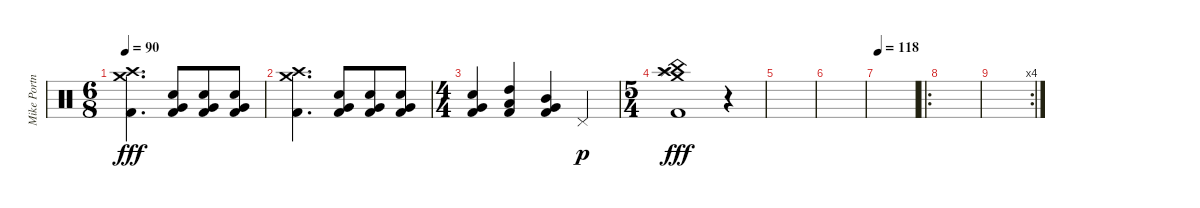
\track ("Mike Portnoy" "Mike Portn") {instrument percussion}
\staff {score}
\articulation defaults
\ts (6 8)
\tempo 90
\clef neutral
\ks c
("Kick (hit) 2" "Crash high (hit)" "Crash medium (hit)").4{d dy fff} ("Kick (hit) 2" "Electric Snare (hit)" "Very Low Tom (hit)").8 ("Kick (hit) 2" "Electric Snare (hit)" "Very Low Tom (hit)").8 ("Kick (hit) 2" "Electric Snare (hit)" "Very Low Tom (hit)").8 |
("Kick (hit) 2" "Crash high (hit)" "Crash medium (hit)").4{d} ("Kick (hit) 2" "Electric Snare (hit)" "Very Low Tom (hit)").8 ("Kick (hit) 2" "Electric Snare (hit)" "Very Low Tom (hit)").8 ("Kick (hit) 2" "Electric Snare (hit)" "Very Low Tom (hit)").8 |
\ts (4 4)
("Electric Snare (hit)" "Very Low Tom (hit)" "Kick (hit) 2").4 ("High Tom (hit)" "Low Tom (hit)" "Kick (hit) 2").4 ("Mid Tom (hit)" "Very Low Tom (hit)" "Kick (hit) 2").4 "Pedal Hi-Hat (hit)".4{dy p} |
\ts (5 4)
("Kick (hit) 2" "Crash high (hit)" "Crash medium (hit)" "China (hit)" "Splash (hit)").1{dy fff} r.4 |
|
|
\tempo 118
|
\ro
|
\rc 4
